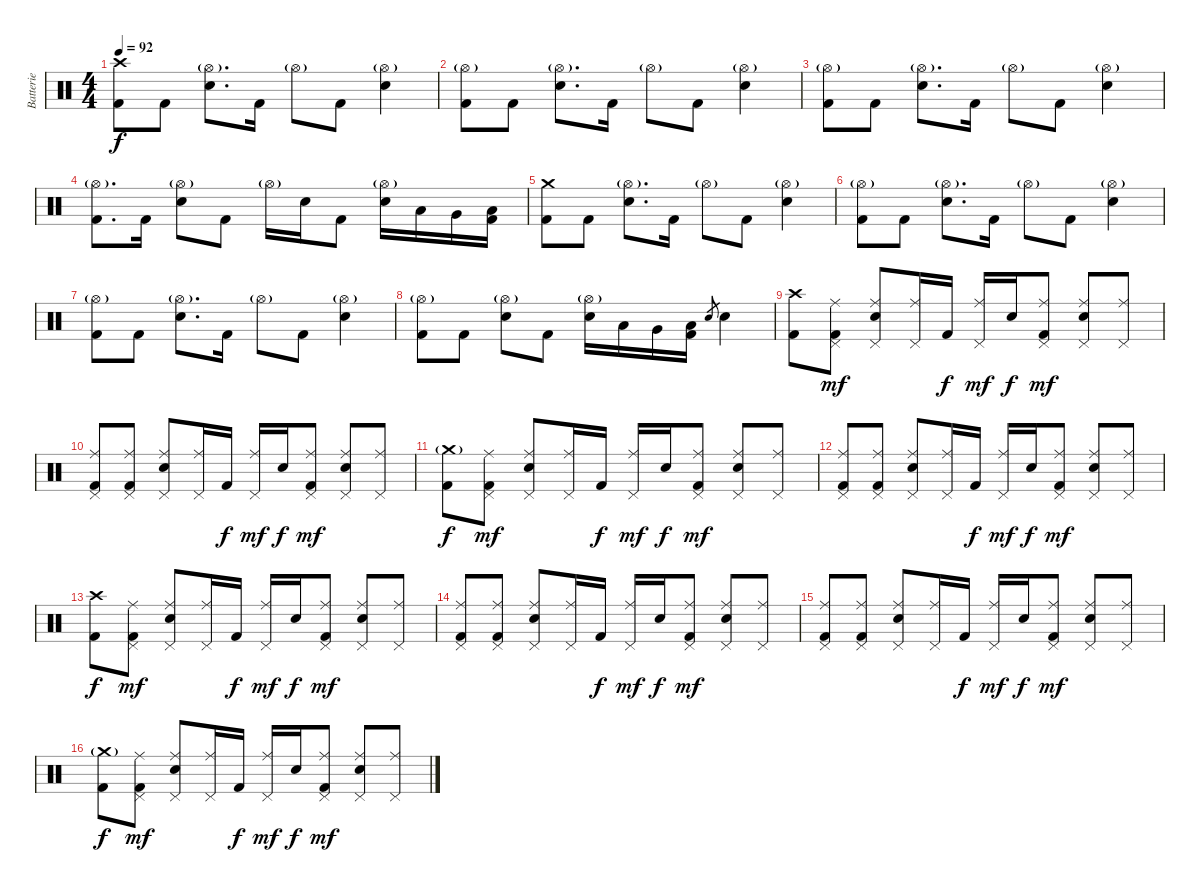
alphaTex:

\track ("Batterie" "Batterie") {instrument percussion}
\staff {score}
\articulation defaults
\ts (4 4)
\tempo 92
\clef neutral
\ks c
("Crash high (hit)" "Kick (hit) 2").8{dy f} "Kick (hit) 2".8 ("Hi-Hat (open)"{g} "Electric Snare (hit)").8{d} "Kick (hit) 2".16 "Hi-Hat (open)"{g}.8 "Kick (hit) 2".8 ("Hi-Hat (open)"{g} "Electric Snare (hit)").4 |
("Hi-Hat (open)"{g} "Kick (hit) 2").8 "Kick (hit) 2".8 ("Hi-Hat (open)"{g} "Electric Snare (hit)").8{d} "Kick (hit) 2".16 "Hi-Hat (open)"{g}.8 "Kick (hit) 2".8 ("Hi-Hat (open)"{g} "Electric Snare (hit)").4 |
("Hi-Hat (open)"{g} "Kick (hit) 2").8 "Kick (hit) 2".8 ("Hi-Hat (open)"{g} "Electric Snare (hit)").8{d} "Kick (hit) 2".16 "Hi-Hat (open)"{g}.8 "Kick (hit) 2".8 ("Hi-Hat (open)"{g} "Electric Snare (hit)").4 |
("Hi-Hat (open)"{g} "Kick (hit) 2").8{d} "Kick (hit) 2".16 ("Hi-Hat (open)"{g} "Electric Snare (hit)").8 "Kick (hit) 2".8 "Hi-Hat (open)"{g}.16 "Electric Snare (hit)".16 "Kick (hit) 2".8 ("Hi-Hat (open)"{g} "Electric Snare (hit)").16 "Low Tom (hit)".16 "Very Low Tom (hit)".16 ("Low Floor Tom (hit)" "Kick (hit) 2").16 |
("Crash medium (hit)" "Kick (hit) 2").8 "Kick (hit) 2".8 ("Hi-Hat (open)"{g} "Electric Snare (hit)").8{d} "Kick (hit) 2".16 "Hi-Hat (open)"{g}.8 "Kick (hit) 2".8 ("Hi-Hat (open)"{g} "Electric Snare (hit)").4 |
("Hi-Hat (open)"{g} "Kick (hit) 2").8 "Kick (hit) 2".8 ("Hi-Hat (open)"{g} "Electric Snare (hit)").8{d} "Kick (hit) 2".16 "Hi-Hat (open)"{g}.8 "Kick (hit) 2".8 ("Hi-Hat (open)"{g} "Electric Snare (hit)").4 |
("Hi-Hat (open)"{g} "Kick (hit) 2").8 "Kick (hit) 2".8 ("Hi-Hat (open)"{g} "Electric Snare (hit)").8{d} "Kick (hit) 2".16 "Hi-Hat (open)"{g}.8 "Kick (hit) 2".8 ("Hi-Hat (open)"{g} "Electric Snare (hit)").4 |
("Hi-Hat (open)"{g} "Kick (hit) 2").8 "Kick (hit) 2".8 ("Hi-Hat (open)"{g} "Electric Snare (hit)").8 "Kick (hit) 2".8 ("Hi-Hat (open)"{g} "Electric Snare (hit)").16 "Low Tom (hit)".16 "Very Low Tom (hit)".16 ("Low Floor Tom (hit)" "Kick (hit) 2").16 "Electric Snare (hit)".8{gr} "Electric Snare (hit)".4 |
("Crash high (hit)" "Kick (hit) 2").8 ("Ride (middle)" "Pedal Hi-Hat (hit)" "Kick (hit) 2").8{dy mf} ("Ride (middle)" "Pedal Hi-Hat (hit)" "Electric Snare (hit)").8 ("Ride (middle)" "Pedal Hi-Hat (hit)").16 "Kick (hit) 2".16{dy f} ("Ride (middle)" "Pedal Hi-Hat (hit)").16{dy mf} "Electric Snare (hit)".16{dy f} ("Ride (middle)" "Pedal Hi-Hat (hit)" "Kick (hit) 2").8{dy mf} ("Ride (middle)" "Pedal Hi-Hat (hit)" "Electric Snare (hit)").8 ("Ride (middle)" "Pedal Hi-Hat (hit)").8 |
("Ride (middle)" "Pedal Hi-Hat (hit)" "Kick (hit) 2").8 ("Ride (middle)" "Pedal Hi-Hat (hit)" "Kick (hit) 2").8 ("Ride (middle)" "Pedal Hi-Hat (hit)" "Electric Snare (hit)").8 ("Ride (middle)" "Pedal Hi-Hat (hit)").16 "Kick (hit) 2".16{dy f} ("Ride (middle)" "Pedal Hi-Hat (hit)").16{dy mf} "Electric Snare (hit)".16{dy f} ("Ride (middle)" "Pedal Hi-Hat (hit)" "Kick (hit) 2").8{dy mf} ("Ride (middle)" "Pedal Hi-Hat (hit)" "Electric Snare (hit)").8 ("Ride (middle)" "Pedal Hi-Hat (hit)").8 |
("Crash medium (hit)"{g} "Kick (hit) 2").8{dy f} ("Ride (middle)" "Pedal Hi-Hat (hit)" "Kick (hit) 2").8{dy mf} ("Ride (middle)" "Pedal Hi-Hat (hit)" "Electric Snare (hit)").8 ("Ride (middle)" "Pedal Hi-Hat (hit)").16 "Kick (hit) 2".16{dy f} ("Ride (middle)" "Pedal Hi-Hat (hit)").16{dy mf} "Electric Snare (hit)".16{dy f} ("Ride (middle)" "Pedal Hi-Hat (hit)" "Kick (hit) 2").8{dy mf} ("Ride (middle)" "Pedal Hi-Hat (hit)" "Electric Snare (hit)").8 ("Ride (middle)" "Pedal Hi-Hat (hit)").8 |
("Ride (middle)" "Pedal Hi-Hat (hit)" "Kick (hit) 2").8 ("Ride (middle)" "Pedal Hi-Hat (hit)" "Kick (hit) 2").8 ("Ride (middle)" "Pedal Hi-Hat (hit)" "Electric Snare (hit)").8 ("Ride (middle)" "Pedal Hi-Hat (hit)").16 "Kick (hit) 2".16{dy f} ("Ride (middle)" "Pedal Hi-Hat (hit)").16{dy mf} "Electric Snare (hit)".16{dy f} ("Ride (middle)" "Pedal Hi-Hat (hit)" "Kick (hit) 2").8{dy mf} ("Ride (middle)" "Pedal Hi-Hat (hit)" "Electric Snare (hit)").8 ("Ride (middle)" "Pedal Hi-Hat (hit)").8 |
("Crash high (hit)" "Kick (hit) 2").8{dy f} ("Ride (middle)" "Pedal Hi-Hat (hit)" "Kick (hit) 2").8{dy mf} ("Ride (middle)" "Pedal Hi-Hat (hit)" "Electric Snare (hit)").8 ("Ride (middle)" "Pedal Hi-Hat (hit)").16 "Kick (hit) 2".16{dy f} ("Ride (middle)" "Pedal Hi-Hat (hit)").16{dy mf} "Electric Snare (hit)".16{dy f} ("Ride (middle)" "Pedal Hi-Hat (hit)" "Kick (hit) 2").8{dy mf} ("Ride (middle)" "Pedal Hi-Hat (hit)" "Electric Snare (hit)").8 ("Ride (middle)" "Pedal Hi-Hat (hit)").8 |
("Ride (middle)" "Pedal Hi-Hat (hit)" "Kick (hit) 2").8 ("Ride (middle)" "Pedal Hi-Hat (hit)" "Kick (hit) 2").8 ("Ride (middle)" "Pedal Hi-Hat (hit)" "Electric Snare (hit)").8 ("Ride (middle)" "Pedal Hi-Hat (hit)").16 "Kick (hit) 2".16{dy f} ("Ride (middle)" "Pedal Hi-Hat (hit)").16{dy mf} "Electric Snare (hit)".16{dy f} ("Ride (middle)" "Pedal Hi-Hat (hit)" "Kick (hit) 2").8{dy mf} ("Ride (middle)" "Pedal Hi-Hat (hit)" "Electric Snare (hit)").8 ("Ride (middle)" "Pedal Hi-Hat (hit)").8 |
("Ride (middle)" "Pedal Hi-Hat (hit)" "Kick (hit) 2").8 ("Ride (middle)" "Pedal Hi-Hat (hit)" "Kick (hit) 2").8 ("Ride (middle)" "Pedal Hi-Hat (hit)" "Electric Snare (hit)").8 ("Ride (middle)" "Pedal Hi-Hat (hit)").16 "Kick (hit) 2".16{dy f} ("Ride (middle)" "Pedal Hi-Hat (hit)").16{dy mf} "Electric Snare (hit)".16{dy f} ("Ride (middle)" "Pedal Hi-Hat (hit)" "Kick (hit) 2").8{dy mf} ("Ride (middle)" "Pedal Hi-Hat (hit)" "Electric Snare (hit)").8 ("Ride (middle)" "Pedal Hi-Hat (hit)").8 |
("Crash medium (hit)"{g} "Kick (hit) 2").8{dy f} ("Ride (middle)" "Pedal Hi-Hat (hit)" "Kick (hit) 2").8{dy mf} ("Ride (middle)" "Pedal Hi-Hat (hit)" "Electric Snare (hit)").8 ("Ride (middle)" "Pedal Hi-Hat (hit)").16 "Kick (hit) 2".16{dy f} ("Ride (middle)" "Pedal Hi-Hat (hit)").16{dy mf} "Electric Snare (hit)".16{dy f} ("Ride (middle)" "Pedal Hi-Hat (hit)" "Kick (hit) 2").8{dy mf} ("Ride (middle)" "Pedal Hi-Hat (hit)" "Electric Snare (hit)").8 ("Ride (middle)" "Pedal Hi-Hat (hit)").8
